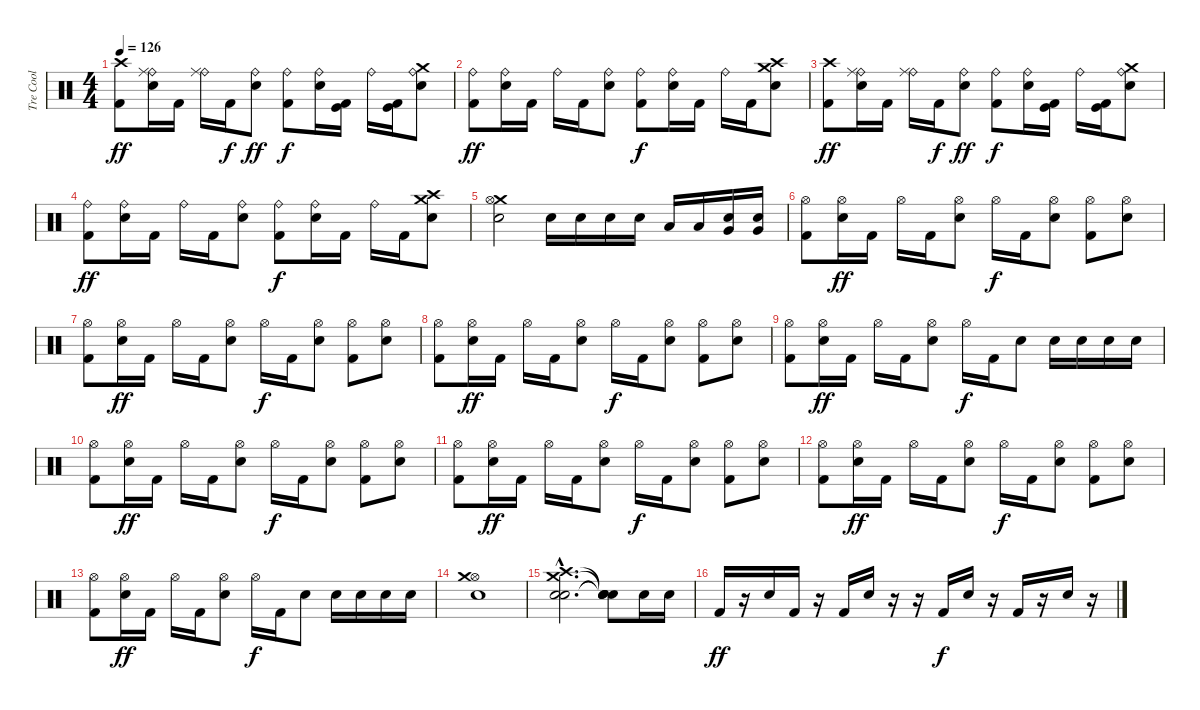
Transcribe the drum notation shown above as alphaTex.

\track ("Tre Cool" "Tre Cool") {instrument percussion}
\staff {score}
\articulation defaults
\ts (4 4)
\tempo 126
\clef neutral
\ks c
("Crash high (hit)" "Kick (hit) 2").8{dy ff} ("Ride (bell)" "Ride (middle)" "Snare (hit) 2").16 "Kick (hit) 2".16 ("Ride (bell)" "Ride (middle)").16 "Kick (hit) 2".16{dy f} ("Snare (hit) 2" "Ride (bell)").8{dy ff} ("Ride (bell)" "Kick (hit) 2").8{dy f} ("Ride (bell)" "Snare (hit) 2").16 ("Kick (hit)" "Kick (hit) 2").16 "Ride (bell)".16 ("Kick (hit)" "Kick (hit) 2").16 ("Ride (bell)" "Crash medium (hit)" "Snare (hit) 2").8 |
("Ride (bell)" "Kick (hit) 2").8{dy ff} ("Ride (bell)" "Snare (hit) 2").16 "Kick (hit) 2".16 "Ride (bell)".16 "Kick (hit) 2".16 ("Ride (bell)" "Snare (hit) 2").8 ("Ride (bell)" "Kick (hit) 2").8{dy f} ("Ride (bell)" "Snare (hit) 2").16 "Kick (hit) 2".16 "Ride (bell)".16 "Kick (hit) 2".16 ("Crash high (hit)" "Crash medium (hit)" "Snare (hit) 2").8 |
("Crash high (hit)" "Kick (hit) 2").8{dy ff} ("Ride (bell)" "Ride (middle)" "Snare (hit) 2").16 "Kick (hit) 2".16 ("Ride (bell)" "Ride (middle)").16 "Kick (hit) 2".16{dy f} ("Snare (hit) 2" "Ride (bell)").8{dy ff} ("Ride (bell)" "Kick (hit) 2").8{dy f} ("Ride (bell)" "Snare (hit) 2").16 ("Kick (hit)" "Kick (hit) 2").16 "Ride (bell)".16 ("Kick (hit)" "Kick (hit) 2").16 ("Ride (bell)" "Crash medium (hit)" "Snare (hit) 2").8 |
("Ride (bell)" "Kick (hit) 2").8{dy ff} ("Ride (bell)" "Snare (hit) 2").16 "Kick (hit) 2".16 "Ride (bell)".16 "Kick (hit) 2".16 ("Ride (bell)" "Snare (hit) 2").8 ("Ride (bell)" "Kick (hit) 2").8{dy f} ("Ride (bell)" "Snare (hit) 2").16 "Kick (hit) 2".16 "Ride (bell)".16 "Kick (hit) 2".16 ("Crash high (hit)" "Crash medium (hit)" "Snare (hit) 2").8 |
("Crash medium (hit)" "Hi-Hat (open)" "Snare (hit) 2").2 "Snare (hit) 2".16 "Snare (hit) 2".16 "Snare (hit) 2".16 "Snare (hit) 2".16 "Low Tom (hit)".16 "Low Tom (hit)".16 ("Very Low Tom (hit)" "Snare (hit) 2").16 ("Very Low Tom (hit)" "Snare (hit) 2").16 |
("Hi-Hat (open)" "Kick (hit) 2").8 ("Hi-Hat (open)" "Snare (hit) 2").16{dy ff} "Kick (hit) 2".16 "Hi-Hat (open)".16 "Kick (hit) 2".16 ("Hi-Hat (open)" "Snare (hit) 2").8 "Hi-Hat (open)".16{dy f} "Kick (hit) 2".16 ("Hi-Hat (open)" "Snare (hit) 2").8 ("Kick (hit) 2" "Hi-Hat (open)").8 ("Snare (hit) 2" "Hi-Hat (open)").8 |
("Hi-Hat (open)" "Kick (hit) 2").8 ("Hi-Hat (open)" "Snare (hit) 2").16{dy ff} "Kick (hit) 2".16 "Hi-Hat (open)".16 "Kick (hit) 2".16 ("Hi-Hat (open)" "Snare (hit) 2").8 "Hi-Hat (open)".16{dy f} "Kick (hit) 2".16 ("Hi-Hat (open)" "Snare (hit) 2").8 ("Kick (hit) 2" "Hi-Hat (open)").8 ("Hi-Hat (open)" "Snare (hit) 2").8 |
("Hi-Hat (open)" "Kick (hit) 2").8 ("Hi-Hat (open)" "Snare (hit) 2").16{dy ff} "Kick (hit) 2".16 "Hi-Hat (open)".16 "Kick (hit) 2".16 ("Hi-Hat (open)" "Snare (hit) 2").8 "Hi-Hat (open)".16{dy f} "Kick (hit) 2".16 ("Hi-Hat (open)" "Snare (hit) 2").8 ("Kick (hit) 2" "Hi-Hat (open)").8 ("Snare (hit) 2" "Hi-Hat (open)").8 |
("Hi-Hat (open)" "Kick (hit) 2").8 ("Hi-Hat (open)" "Snare (hit) 2").16{dy ff} "Kick (hit) 2".16 "Hi-Hat (open)".16 "Kick (hit) 2".16 ("Hi-Hat (open)" "Snare (hit) 2").8 "Hi-Hat (open)".16{dy f} "Kick (hit) 2".16 "Snare (hit) 2".8 "Snare (hit) 2".16 "Snare (hit) 2".16 "Snare (hit) 2".16 "Snare (hit) 2".16 |
("Hi-Hat (open)" "Kick (hit) 2").8 ("Hi-Hat (open)" "Snare (hit) 2").16{dy ff} "Kick (hit) 2".16 "Hi-Hat (open)".16 "Kick (hit) 2".16 ("Hi-Hat (open)" "Snare (hit) 2").8 "Hi-Hat (open)".16{dy f} "Kick (hit) 2".16 ("Hi-Hat (open)" "Snare (hit) 2").8 ("Kick (hit) 2" "Hi-Hat (open)").8 ("Snare (hit) 2" "Hi-Hat (open)").8 |
("Hi-Hat (open)" "Kick (hit) 2").8 ("Hi-Hat (open)" "Snare (hit) 2").16{dy ff} "Kick (hit) 2".16 "Hi-Hat (open)".16 "Kick (hit) 2".16 ("Hi-Hat (open)" "Snare (hit) 2").8 "Hi-Hat (open)".16{dy f} "Kick (hit) 2".16 ("Hi-Hat (open)" "Snare (hit) 2").8 ("Kick (hit) 2" "Hi-Hat (open)").8 ("Hi-Hat (open)" "Snare (hit) 2").8 |
("Hi-Hat (open)" "Kick (hit) 2").8 ("Hi-Hat (open)" "Snare (hit) 2").16{dy ff} "Kick (hit) 2".16 "Hi-Hat (open)".16 "Kick (hit) 2".16 ("Hi-Hat (open)" "Snare (hit) 2").8 "Hi-Hat (open)".16{dy f} "Kick (hit) 2".16 ("Hi-Hat (open)" "Snare (hit) 2").8 ("Kick (hit) 2" "Hi-Hat (open)").8 ("Snare (hit) 2" "Hi-Hat (open)").8 |
("Hi-Hat (open)" "Kick (hit) 2").8 ("Hi-Hat (open)" "Snare (hit) 2").16{dy ff} "Kick (hit) 2".16 "Hi-Hat (open)".16 "Kick (hit) 2".16 ("Hi-Hat (open)" "Snare (hit) 2").8 "Hi-Hat (open)".16{dy f} "Kick (hit) 2".16 "Snare (hit) 2".8 "Snare (hit) 2".16 "Snare (hit) 2".16 "Snare (hit) 2".16 "Snare (hit) 2".16 |
("Hi-Hat (open)" "Crash medium (hit)" "Snare (hit) 2").1 |
("Crash high (hit)"{hac} "Crash medium (hit)"{hac} "Electric Snare (hit)"{hac} "Snare (hit) 2"{hac}).2{d} ("Snare (hit)"{t} "Snare (hit)"{t} "Snare (hit)"{t} "Snare (hit)"{t}).8 "Snare (hit) 2".16 "Snare (hit) 2".16 |
"Kick (hit) 2".16{dy ff} r.16 "Snare (hit) 2".16 "Kick (hit) 2".16 r.16 "Kick (hit) 2".16 "Snare (hit) 2".16 r.16 r.16 "Kick (hit) 2".16{dy f} "Snare (hit) 2".16 r.16 "Kick (hit) 2".16 r.16 "Snare (hit) 2".16 r.16
